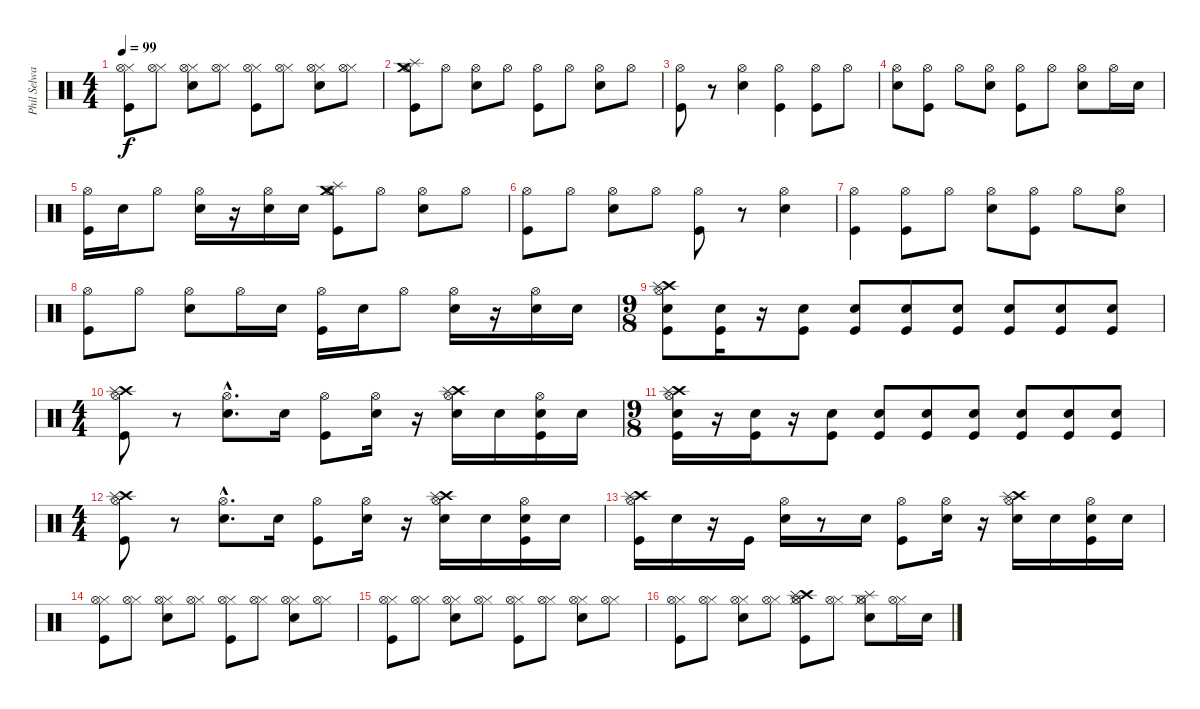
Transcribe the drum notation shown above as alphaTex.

\track ("Phil Selway" "Phil Selwa") {instrument percussion}
\staff {score}
\articulation defaults
\ts (4 4)
\tempo 99
\clef neutral
\ks c
("Kick (hit)" "Hi-Hat (closed)" "Hi-Hat (open)").8{dy f} ("Hi-Hat (closed)" "Hi-Hat (open)").8 ("Snare (hit) 2" "Hi-Hat (closed)" "Hi-Hat (open)").8 ("Hi-Hat (closed)" "Hi-Hat (open)").8 ("Kick (hit)" "Hi-Hat (closed)" "Hi-Hat (open)").8 ("Hi-Hat (closed)" "Hi-Hat (open)").8 ("Snare (hit) 2" "Hi-Hat (closed)" "Hi-Hat (open)").8 ("Hi-Hat (closed)" "Hi-Hat (open)").8 |
("Kick (hit)" "Hi-Hat (open)" "Splash (hit)" "Crash medium (hit)").8 "Hi-Hat (open)".8 ("Snare (hit) 2" "Hi-Hat (open)").8 "Hi-Hat (open)".8 ("Kick (hit)" "Hi-Hat (open)").8 "Hi-Hat (open)".8 ("Snare (hit) 2" "Hi-Hat (open)").8 "Hi-Hat (open)".8 |
("Kick (hit)" "Hi-Hat (open)").8 r.8 ("Snare (hit) 2" "Hi-Hat (open)").4 ("Kick (hit)" "Hi-Hat (open)").4 ("Kick (hit)" "Hi-Hat (open)").8 "Hi-Hat (open)".8 |
("Snare (hit) 2" "Hi-Hat (open)").8 ("Kick (hit)" "Hi-Hat (open)").8 "Hi-Hat (open)".8 ("Snare (hit) 2" "Hi-Hat (open)").8 ("Kick (hit)" "Hi-Hat (open)").8 "Hi-Hat (open)".8 ("Snare (hit) 2" "Hi-Hat (open)").8 "Hi-Hat (open)".16 "Snare (hit) 2".16 |
("Kick (hit)" "Hi-Hat (open)").16 "Snare (hit) 2".16 "Hi-Hat (open)".8 ("Snare (hit) 2" "Hi-Hat (open)").16 r.16 ("Snare (hit) 2" "Hi-Hat (open)").16 "Snare (hit) 2".16 ("Kick (hit)" "Hi-Hat (open)" "Splash (hit)" "Crash medium (hit)").8 "Hi-Hat (open)".8 ("Snare (hit) 2" "Hi-Hat (open)").8 "Hi-Hat (open)".8 |
("Kick (hit)" "Hi-Hat (open)").8 "Hi-Hat (open)".8 ("Snare (hit) 2" "Hi-Hat (open)").8 "Hi-Hat (open)".8 ("Kick (hit)" "Hi-Hat (open)").8 r.8 ("Snare (hit) 2" "Hi-Hat (open)").4 |
("Kick (hit)" "Hi-Hat (open)").4 ("Kick (hit)" "Hi-Hat (open)").8 "Hi-Hat (open)".8 ("Snare (hit) 2" "Hi-Hat (open)").8 ("Kick (hit)" "Hi-Hat (open)").8 "Hi-Hat (open)".8 ("Snare (hit) 2" "Hi-Hat (open)").8 |
("Kick (hit)" "Hi-Hat (open)").8 "Hi-Hat (open)".8 ("Snare (hit) 2" "Hi-Hat (open)").8 "Hi-Hat (open)".16 "Snare (hit) 2".16 ("Kick (hit)" "Hi-Hat (open)").16 "Snare (hit) 2".16 "Hi-Hat (open)".8 ("Snare (hit) 2" "Hi-Hat (open)").16 r.16 ("Snare (hit) 2" "Hi-Hat (open)").16 "Snare (hit) 2".16 |
\ts (9 8)
("Kick (hit)" "Snare (hit) 2" "Hi-Hat (open)" "Crash high (hit)" "Splash (hit)").8 ("Kick (hit)" "Snare (hit) 2").16 r.16 ("Kick (hit)" "Snare (hit) 2").8 ("Kick (hit)" "Snare (hit) 2").8 ("Kick (hit)" "Snare (hit) 2").8 ("Kick (hit)" "Snare (hit) 2").8 ("Kick (hit)" "Snare (hit) 2").8 ("Kick (hit)" "Snare (hit) 2").8 ("Kick (hit)" "Snare (hit) 2").8 |
\ts (4 4)
("Kick (hit)" "Hi-Hat (open)" "Crash high (hit)" "Splash (hit)").8 r.8 ("Snare (hit) 2"{hac} "Hi-Hat (open)"{hac}).8{d} "Snare (hit) 2".16 ("Kick (hit)" "Hi-Hat (open)").8 ("Snare (hit) 2" "Hi-Hat (open)").16 r.16 ("Snare (hit) 2" "Hi-Hat (open)" "Crash high (hit)" "Splash (hit)").16 "Snare (hit) 2".16 ("Kick (hit)" "Snare (hit) 2" "Hi-Hat (open)").16 "Snare (hit) 2".16 |
\ts (9 8)
("Kick (hit)" "Snare (hit) 2" "Hi-Hat (open)" "Crash high (hit)" "Splash (hit)").16 r.16 ("Kick (hit)" "Snare (hit) 2").16 r.16 ("Kick (hit)" "Snare (hit) 2").8 ("Kick (hit)" "Snare (hit) 2").8 ("Kick (hit)" "Snare (hit) 2").8 ("Kick (hit)" "Snare (hit) 2").8 ("Kick (hit)" "Snare (hit) 2").8 ("Kick (hit)" "Snare (hit) 2").8 ("Kick (hit)" "Snare (hit) 2").8 |
\ts (4 4)
("Kick (hit)" "Hi-Hat (open)" "Crash high (hit)" "Splash (hit)").8 r.8 ("Snare (hit) 2"{hac} "Hi-Hat (open)"{hac}).8{d} "Snare (hit) 2".16 ("Kick (hit)" "Hi-Hat (open)").8 ("Snare (hit) 2" "Hi-Hat (open)").16 r.16 ("Snare (hit) 2" "Hi-Hat (open)" "Crash high (hit)" "Splash (hit)").16 "Snare (hit) 2".16 ("Kick (hit)" "Snare (hit) 2" "Hi-Hat (open)").16 "Snare (hit) 2".16 |
("Kick (hit)" "Hi-Hat (open)" "Crash high (hit)" "Splash (hit)").16 "Snare (hit) 2".16 r.16 "Kick (hit)".16 ("Snare (hit) 2" "Hi-Hat (open)").16 r.8 "Snare (hit) 2".16 ("Kick (hit)" "Hi-Hat (open)").8 ("Snare (hit) 2" "Hi-Hat (open)").16 r.16 ("Snare (hit) 2" "Hi-Hat (open)" "Crash high (hit)" "Splash (hit)").16 "Snare (hit) 2".16 ("Kick (hit)" "Snare (hit) 2" "Hi-Hat (open)").16 "Snare (hit) 2".16 |
("Kick (hit)" "Hi-Hat (closed)" "Hi-Hat (open)").8 ("Hi-Hat (closed)" "Hi-Hat (open)").8 ("Snare (hit) 2" "Hi-Hat (closed)" "Hi-Hat (open)").8 ("Hi-Hat (closed)" "Hi-Hat (open)").8 ("Kick (hit)" "Hi-Hat (closed)" "Hi-Hat (open)").8 ("Hi-Hat (closed)" "Hi-Hat (open)").8 ("Snare (hit) 2" "Hi-Hat (closed)" "Hi-Hat (open)").8 ("Hi-Hat (closed)" "Hi-Hat (open)").8 |
("Kick (hit)" "Hi-Hat (closed)" "Hi-Hat (open)").8 ("Hi-Hat (closed)" "Hi-Hat (open)").8 ("Snare (hit) 2" "Hi-Hat (closed)" "Hi-Hat (open)").8 ("Hi-Hat (closed)" "Hi-Hat (open)").8 ("Kick (hit)" "Hi-Hat (closed)" "Hi-Hat (open)").8 ("Hi-Hat (closed)" "Hi-Hat (open)").8 ("Snare (hit) 2" "Hi-Hat (closed)" "Hi-Hat (open)").8 ("Hi-Hat (closed)" "Hi-Hat (open)").8 |
("Kick (hit)" "Hi-Hat (closed)" "Hi-Hat (open)").8 ("Hi-Hat (closed)" "Hi-Hat (open)").8 ("Snare (hit) 2" "Hi-Hat (closed)" "Hi-Hat (open)").8 ("Hi-Hat (closed)" "Hi-Hat (open)").8 ("Kick (hit)" "Hi-Hat (closed)" "Hi-Hat (open)" "Crash high (hit)" "Splash (hit)").8 ("Hi-Hat (closed)" "Hi-Hat (open)").8 ("Snare (hit) 2" "Hi-Hat (closed)" "Hi-Hat (open)" "Splash (hit)").8 ("Hi-Hat (closed)" "Hi-Hat (open)").16 "Snare (hit) 2".16
